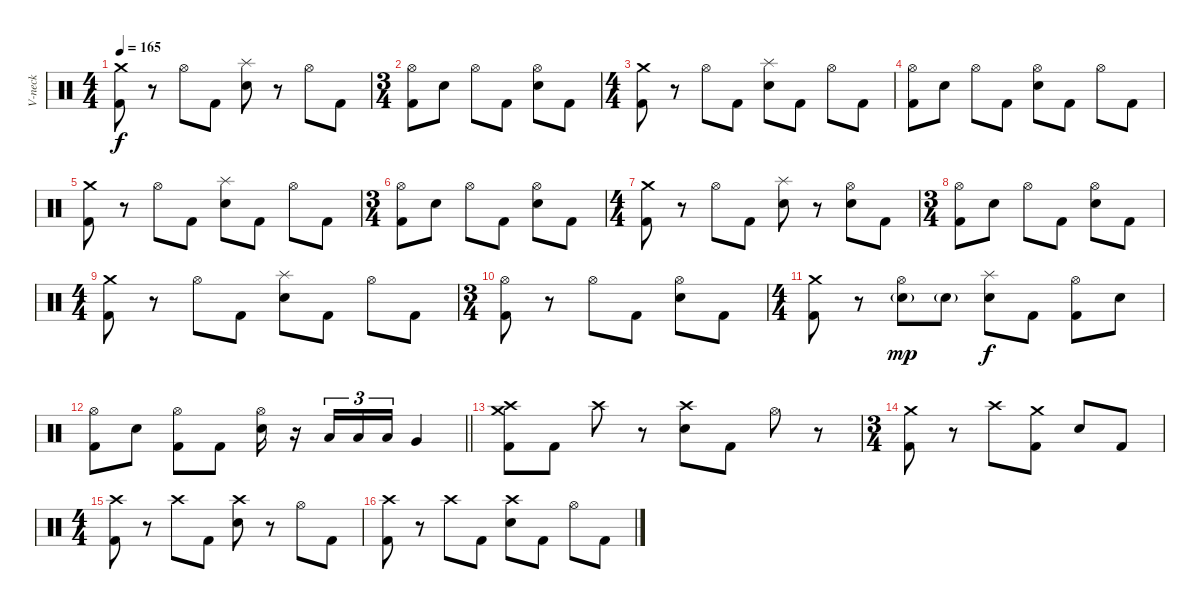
\track ("V-neck" "V-neck") {instrument percussion}
\staff {score}
\articulation defaults
\ts (4 4)
\tempo 165
\clef neutral
\ks c
("Crash medium (hit)" "Kick (hit) 2").8{dy f} r.8 "Hi-Hat (open)".8 "Kick (hit) 2".8 ("Splash (hit)" "Electric Snare (hit)").8 r.8 "Hi-Hat (open)".8 "Kick (hit) 2".8 |
\ts (3 4)
("Hi-Hat (open)" "Kick (hit) 2").8 "Electric Snare (hit)".8 "Hi-Hat (open)".8 "Kick (hit) 2".8 ("Hi-Hat (open)" "Electric Snare (hit)").8 "Kick (hit) 2".8 |
\ts (4 4)
("Crash medium (hit)" "Kick (hit) 2").8 r.8 "Hi-Hat (open)".8 "Kick (hit) 2".8 ("Splash (hit)" "Electric Snare (hit)").8 "Kick (hit) 2".8 "Hi-Hat (open)".8 "Kick (hit) 2".8 |
("Hi-Hat (open)" "Kick (hit) 2").8 "Electric Snare (hit)".8 "Hi-Hat (open)".8 "Kick (hit) 2".8 ("Hi-Hat (open)" "Electric Snare (hit)").8 "Kick (hit) 2".8 "Hi-Hat (open)".8 "Kick (hit) 2".8 |
("Crash medium (hit)" "Kick (hit) 2").8 r.8 "Hi-Hat (open)".8 "Kick (hit) 2".8 ("Splash (hit)" "Electric Snare (hit)").8 "Kick (hit) 2".8 "Hi-Hat (open)".8 "Kick (hit) 2".8 |
\ts (3 4)
("Hi-Hat (open)" "Kick (hit) 2").8 "Electric Snare (hit)".8 "Hi-Hat (open)".8 "Kick (hit) 2".8 ("Hi-Hat (open)" "Electric Snare (hit)").8 "Kick (hit) 2".8 |
\ts (4 4)
("Crash medium (hit)" "Kick (hit) 2").8 r.8 "Hi-Hat (open)".8 "Kick (hit) 2".8 ("Splash (hit)" "Electric Snare (hit)").8 r.8 ("Hi-Hat (open)" "Electric Snare (hit)").8 "Kick (hit) 2".8 |
\ts (3 4)
("Hi-Hat (open)" "Kick (hit) 2").8 "Electric Snare (hit)".8 "Hi-Hat (open)".8 "Kick (hit) 2".8 ("Hi-Hat (open)" "Electric Snare (hit)").8 "Kick (hit) 2".8 |
\ts (4 4)
("Crash medium (hit)" "Kick (hit) 2").8 r.8 "Hi-Hat (open)".8 "Kick (hit) 2".8 ("Splash (hit)" "Electric Snare (hit)").8 "Kick (hit) 2".8 "Hi-Hat (open)".8 "Kick (hit) 2".8 |
\ts (3 4)
("Hi-Hat (open)" "Kick (hit) 2").8 r.8 "Hi-Hat (open)".8 "Kick (hit) 2".8 ("Hi-Hat (open)" "Electric Snare (hit)").8 "Kick (hit) 2".8 |
\ts (4 4)
("Crash medium (hit)" "Kick (hit) 2").8 r.8 ("Hi-Hat (open)" "Electric Snare (hit)"{g}).8{dy mp} "Electric Snare (hit)"{g}.8 ("Splash (hit)" "Electric Snare (hit)").8{dy f} "Kick (hit) 2".8 ("Hi-Hat (open)" "Kick (hit) 2").8 "Electric Snare (hit)".8 |
\barLineRight lightlight
("Hi-Hat (open)" "Kick (hit) 2").8 "Electric Snare (hit)".8 ("Hi-Hat (open)" "Kick (hit) 2").8 "Kick (hit) 2".8 ("Hi-Hat (open)" "Electric Snare (hit)").16 r.16 "Low Tom (hit)".16{tu (3 2)} "Low Tom (hit)".16{tu (3 2)} "Low Tom (hit)".16{tu (3 2)} "Very Low Tom (hit)".4 |
\section ("" "")
("Crash medium (hit)" "Crash high (hit)" "Kick (hit) 2").8 "Kick (hit) 2".8 "Crash high (hit)".8 r.8 ("Crash high (hit)" "Electric Snare (hit)").8 "Kick (hit) 2".8 "Hi-Hat (open)".8 r.8 |
\ts (3 4)
("Crash medium (hit)" "Kick (hit) 2").8 r.8 "Crash high (hit)".8 ("Crash medium (hit)" "Kick (hit) 2").8 "Electric Snare (hit)".8 "Kick (hit) 2".8 |
\ts (4 4)
("Crash high (hit)" "Kick (hit) 2").8 r.8 "Crash high (hit)".8 "Kick (hit) 2".8 ("Crash high (hit)" "Electric Snare (hit)").8 r.8 "Hi-Hat (open)".8 "Kick (hit) 2".8 |
("Crash high (hit)" "Kick (hit) 2").8 r.8 "Crash high (hit)".8 "Kick (hit) 2".8 ("Crash high (hit)" "Electric Snare (hit)").8 "Kick (hit) 2".8 "Hi-Hat (open)".8 "Kick (hit) 2".8
